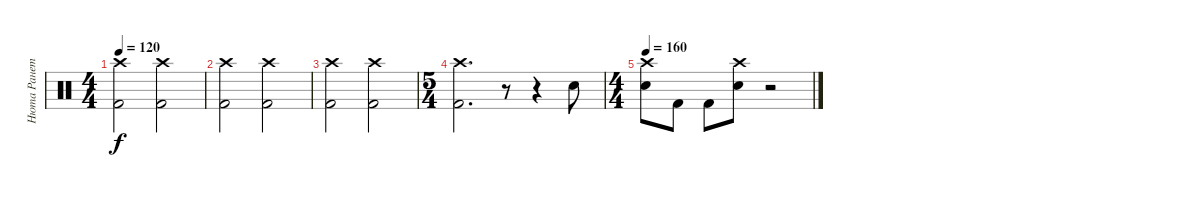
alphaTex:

\track ("Нюта Ранетка" "Нюта Ранет") {instrument percussion}
\staff {score}
\articulation defaults
\ts (4 4)
\tempo 120
\clef neutral
\ks c
("Crash high (hit)" "Kick (hit) 2").2{dy f} ("Crash high (hit)" "Kick (hit) 2").2 |
("Crash high (hit)" "Kick (hit) 2").2 ("Crash high (hit)" "Kick (hit) 2").2 |
("Crash high (hit)" "Kick (hit) 2").2 ("Crash high (hit)" "Kick (hit) 2").2 |
\ts (5 4)
("Crash high (hit)" "Kick (hit) 2").2{d} r.8 r.4 "Snare (hit) 2".8 |
\ts (4 4)
\tempo 160
("Crash high (hit)" "Snare (hit) 2").8 "Kick (hit) 2".8 "Kick (hit) 2".8 ("Crash high (hit)" "Snare (hit) 2").8 r.2
